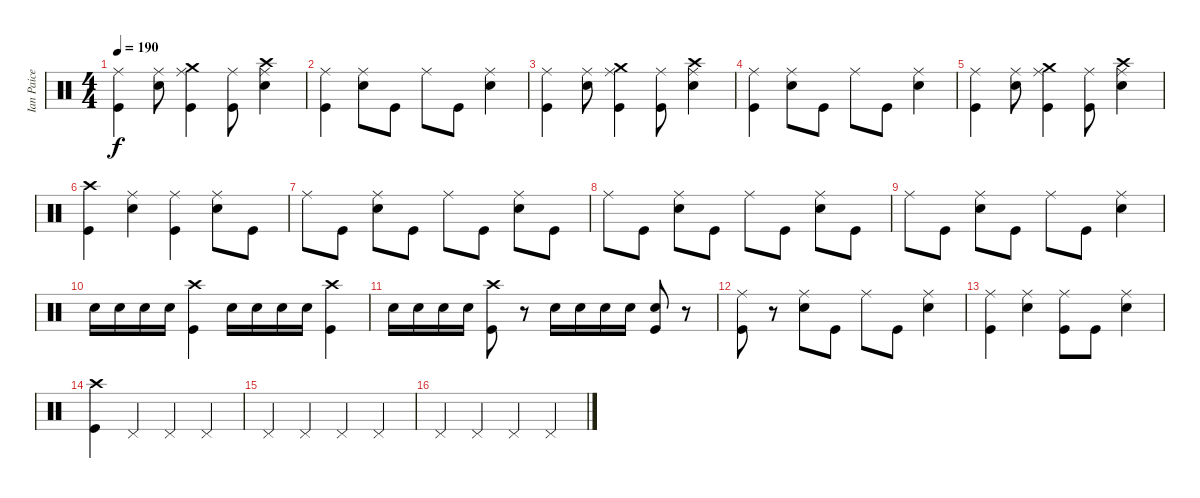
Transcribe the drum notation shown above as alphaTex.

\track ("Ian Paice" "Ian Paice") {instrument percussion}
\staff {score}
\articulation defaults
\ts (4 4)
\tempo 190
\clef neutral
\ks c
("Kick (hit)" "Ride (middle)").4{dy f} ("Ride (middle)" "Snare (hit) 2").8 ("Ride (middle)" "Crash medium (hit)" "Kick (hit)").4 ("Kick (hit)" "Ride (middle)").8 ("Ride (middle)" "Crash high (hit)" "Snare (hit) 2").4 |
("Kick (hit)" "Ride (middle)").4 ("Snare (hit) 2" "Ride (middle)").8 "Kick (hit)".8 "Ride (middle)".8 "Kick (hit)".8 ("Snare (hit) 2" "Ride (middle)").4 |
("Ride (middle)" "Kick (hit)").4 ("Snare (hit) 2" "Ride (middle)").8 ("Ride (middle)" "Crash medium (hit)" "Kick (hit)").4 ("Kick (hit)" "Ride (middle)").8 ("Ride (middle)" "Crash high (hit)" "Snare (hit) 2").4 |
("Kick (hit)" "Ride (middle)").4 ("Snare (hit) 2" "Ride (middle)").8 "Kick (hit)".8 "Ride (middle)".8 "Kick (hit)".8 ("Snare (hit) 2" "Ride (middle)").4 |
("Ride (middle)" "Kick (hit)").4 ("Ride (middle)" "Snare (hit) 2").8 ("Ride (middle)" "Crash medium (hit)" "Kick (hit)").4 ("Ride (middle)" "Kick (hit)").8 ("Ride (middle)" "Crash high (hit)" "Snare (hit) 2").4 |
("Kick (hit)" "Crash high (hit)").4 ("Snare (hit) 2" "Ride (middle)").4 ("Kick (hit)" "Ride (middle)").4 ("Ride (middle)" "Snare (hit) 2").8 "Kick (hit)".8 |
"Ride (middle)".8 "Kick (hit)".8 ("Ride (middle)" "Snare (hit) 2").8 "Kick (hit)".8 "Ride (middle)".8 "Kick (hit)".8 ("Snare (hit) 2" "Ride (middle)").8 "Kick (hit)".8 |
"Ride (middle)".8 "Kick (hit)".8 ("Ride (middle)" "Snare (hit) 2").8 "Kick (hit)".8 "Ride (middle)".8 "Kick (hit)".8 ("Snare (hit) 2" "Ride (middle)").8 "Kick (hit)".8 |
"Ride (middle)".8 "Kick (hit)".8 ("Snare (hit) 2" "Ride (middle)").8 "Kick (hit)".8 "Ride (middle)".8 "Kick (hit)".8 ("Snare (hit) 2" "Ride (middle)").4 |
"Snare (hit) 2".16 "Snare (hit) 2".16 "Snare (hit) 2".16 "Snare (hit) 2".16 ("Kick (hit)" "Crash high (hit)").4 "Snare (hit) 2".16 "Snare (hit) 2".16 "Snare (hit) 2".16 "Snare (hit) 2".16 ("Kick (hit)" "Crash high (hit)").4 |
"Snare (hit) 2".16 "Snare (hit) 2".16 "Snare (hit) 2".16 "Snare (hit) 2".16 ("Crash high (hit)" "Kick (hit)").8 r.8 "Snare (hit) 2".16 "Snare (hit) 2".16 "Snare (hit) 2".16 "Snare (hit) 2".16 ("Snare (hit) 2" "Kick (hit)").8 r.8 |
("Kick (hit)" "Ride (middle)").8 r.8 ("Snare (hit) 2" "Ride (middle)").8 "Kick (hit)".8 "Ride (middle)".8 "Kick (hit)".8 ("Snare (hit) 2" "Ride (middle)").4 |
("Kick (hit)" "Ride (middle)").4 ("Snare (hit) 2" "Ride (middle)").4 ("Ride (middle)" "Kick (hit)").8 "Kick (hit)".8 ("Ride (middle)" "Snare (hit) 2").4 |
("Kick (hit)" "Crash high (hit)").4 "Pedal Hi-Hat (hit)".4 "Pedal Hi-Hat (hit)".4 "Pedal Hi-Hat (hit)".4 |
"Pedal Hi-Hat (hit)".4 "Pedal Hi-Hat (hit)".4 "Pedal Hi-Hat (hit)".4 "Pedal Hi-Hat (hit)".4 |
"Pedal Hi-Hat (hit)".4 "Pedal Hi-Hat (hit)".4 "Pedal Hi-Hat (hit)".4 "Pedal Hi-Hat (hit)".4
